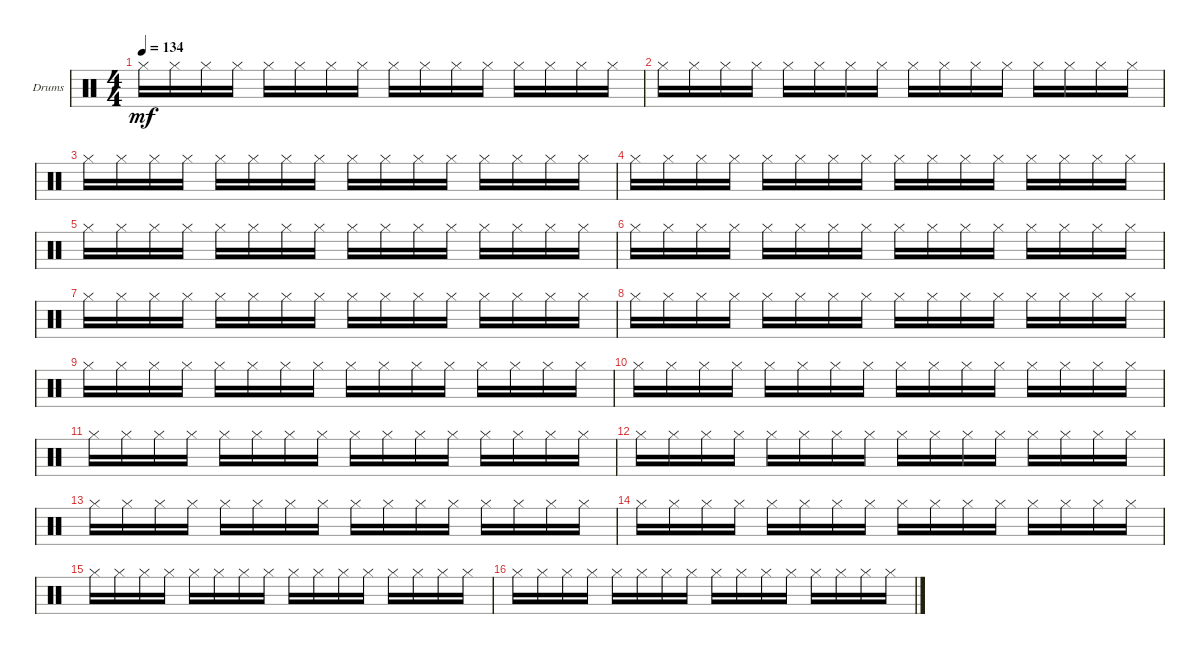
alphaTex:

\bracketExtendMode groupsimilarinstruments
\firstSystemTrackNameOrientation horizontal
\otherSystemsTrackNameOrientation horizontal
\track ("Drums" "Drums") {instrument percussion}
\staff {score}
\articulation defaults
\ts (4 4)
\tempo 134
\clef neutral
\ks c "Hi-Hat (closed)".16{dy mf} "Hi-Hat (closed)".16 "Hi-Hat (closed)".16 "Hi-Hat (closed)".16 "Hi-Hat (closed)".16 "Hi-Hat (closed)".16 "Hi-Hat (closed)".16 "Hi-Hat (closed)".16 "Hi-Hat (closed)".16 "Hi-Hat (closed)".16 "Hi-Hat (closed)".16 "Hi-Hat (closed)".16 "Hi-Hat (closed)".16 "Hi-Hat (closed)".16 "Hi-Hat (closed)".16 "Hi-Hat (closed)".16
|
"Hi-Hat (closed)".16 "Hi-Hat (closed)".16 "Hi-Hat (closed)".16 "Hi-Hat (closed)".16 "Hi-Hat (closed)".16 "Hi-Hat (closed)".16 "Hi-Hat (closed)".16 "Hi-Hat (closed)".16 "Hi-Hat (closed)".16 "Hi-Hat (closed)".16 "Hi-Hat (closed)".16 "Hi-Hat (closed)".16 "Hi-Hat (closed)".16 "Hi-Hat (closed)".16 "Hi-Hat (closed)".16 "Hi-Hat (closed)".16 |
"Hi-Hat (closed)".16 "Hi-Hat (closed)".16 "Hi-Hat (closed)".16 "Hi-Hat (closed)".16 "Hi-Hat (closed)".16 "Hi-Hat (closed)".16 "Hi-Hat (closed)".16 "Hi-Hat (closed)".16 "Hi-Hat (closed)".16 "Hi-Hat (closed)".16 "Hi-Hat (closed)".16 "Hi-Hat (closed)".16 "Hi-Hat (closed)".16 "Hi-Hat (closed)".16 "Hi-Hat (closed)".16 "Hi-Hat (closed)".16 |
"Hi-Hat (closed)".16 "Hi-Hat (closed)".16 "Hi-Hat (closed)".16 "Hi-Hat (closed)".16 "Hi-Hat (closed)".16 "Hi-Hat (closed)".16 "Hi-Hat (closed)".16 "Hi-Hat (closed)".16 "Hi-Hat (closed)".16 "Hi-Hat (closed)".16 "Hi-Hat (closed)".16 "Hi-Hat (closed)".16 "Hi-Hat (closed)".16 "Hi-Hat (closed)".16 "Hi-Hat (closed)".16 "Hi-Hat (closed)".16 |
"Hi-Hat (closed)".16 "Hi-Hat (closed)".16 "Hi-Hat (closed)".16 "Hi-Hat (closed)".16 "Hi-Hat (closed)".16 "Hi-Hat (closed)".16 "Hi-Hat (closed)".16 "Hi-Hat (closed)".16 "Hi-Hat (closed)".16 "Hi-Hat (closed)".16 "Hi-Hat (closed)".16 "Hi-Hat (closed)".16 "Hi-Hat (closed)".16 "Hi-Hat (closed)".16 "Hi-Hat (closed)".16 "Hi-Hat (closed)".16 |
"Hi-Hat (closed)".16 "Hi-Hat (closed)".16 "Hi-Hat (closed)".16 "Hi-Hat (closed)".16 "Hi-Hat (closed)".16 "Hi-Hat (closed)".16 "Hi-Hat (closed)".16 "Hi-Hat (closed)".16 "Hi-Hat (closed)".16 "Hi-Hat (closed)".16 "Hi-Hat (closed)".16 "Hi-Hat (closed)".16 "Hi-Hat (closed)".16 "Hi-Hat (closed)".16 "Hi-Hat (closed)".16 "Hi-Hat (closed)".16 |
"Hi-Hat (closed)".16 "Hi-Hat (closed)".16 "Hi-Hat (closed)".16 "Hi-Hat (closed)".16 "Hi-Hat (closed)".16 "Hi-Hat (closed)".16 "Hi-Hat (closed)".16 "Hi-Hat (closed)".16 "Hi-Hat (closed)".16 "Hi-Hat (closed)".16 "Hi-Hat (closed)".16 "Hi-Hat (closed)".16 "Hi-Hat (closed)".16 "Hi-Hat (closed)".16 "Hi-Hat (closed)".16 "Hi-Hat (closed)".16 |
"Hi-Hat (closed)".16 "Hi-Hat (closed)".16 "Hi-Hat (closed)".16 "Hi-Hat (closed)".16 "Hi-Hat (closed)".16 "Hi-Hat (closed)".16 "Hi-Hat (closed)".16 "Hi-Hat (closed)".16 "Hi-Hat (closed)".16 "Hi-Hat (closed)".16 "Hi-Hat (closed)".16 "Hi-Hat (closed)".16 "Hi-Hat (closed)".16 "Hi-Hat (closed)".16 "Hi-Hat (closed)".16 "Hi-Hat (closed)".16 |
"Hi-Hat (closed)".16 "Hi-Hat (closed)".16 "Hi-Hat (closed)".16 "Hi-Hat (closed)".16 "Hi-Hat (closed)".16 "Hi-Hat (closed)".16 "Hi-Hat (closed)".16 "Hi-Hat (closed)".16 "Hi-Hat (closed)".16 "Hi-Hat (closed)".16 "Hi-Hat (closed)".16 "Hi-Hat (closed)".16 "Hi-Hat (closed)".16 "Hi-Hat (closed)".16 "Hi-Hat (closed)".16 "Hi-Hat (closed)".16 |
"Hi-Hat (closed)".16 "Hi-Hat (closed)".16 "Hi-Hat (closed)".16 "Hi-Hat (closed)".16 "Hi-Hat (closed)".16 "Hi-Hat (closed)".16 "Hi-Hat (closed)".16 "Hi-Hat (closed)".16 "Hi-Hat (closed)".16 "Hi-Hat (closed)".16 "Hi-Hat (closed)".16 "Hi-Hat (closed)".16 "Hi-Hat (closed)".16 "Hi-Hat (closed)".16 "Hi-Hat (closed)".16 "Hi-Hat (closed)".16 |
"Hi-Hat (closed)".16 "Hi-Hat (closed)".16 "Hi-Hat (closed)".16 "Hi-Hat (closed)".16 "Hi-Hat (closed)".16 "Hi-Hat (closed)".16 "Hi-Hat (closed)".16 "Hi-Hat (closed)".16 "Hi-Hat (closed)".16 "Hi-Hat (closed)".16 "Hi-Hat (closed)".16 "Hi-Hat (closed)".16 "Hi-Hat (closed)".16 "Hi-Hat (closed)".16 "Hi-Hat (closed)".16 "Hi-Hat (closed)".16 |
"Hi-Hat (closed)".16 "Hi-Hat (closed)".16 "Hi-Hat (closed)".16 "Hi-Hat (closed)".16 "Hi-Hat (closed)".16 "Hi-Hat (closed)".16 "Hi-Hat (closed)".16 "Hi-Hat (closed)".16 "Hi-Hat (closed)".16 "Hi-Hat (closed)".16 "Hi-Hat (closed)".16 "Hi-Hat (closed)".16 "Hi-Hat (closed)".16 "Hi-Hat (closed)".16 "Hi-Hat (closed)".16 "Hi-Hat (closed)".16 |
"Hi-Hat (closed)".16 "Hi-Hat (closed)".16 "Hi-Hat (closed)".16 "Hi-Hat (closed)".16 "Hi-Hat (closed)".16 "Hi-Hat (closed)".16 "Hi-Hat (closed)".16 "Hi-Hat (closed)".16 "Hi-Hat (closed)".16 "Hi-Hat (closed)".16 "Hi-Hat (closed)".16 "Hi-Hat (closed)".16 "Hi-Hat (closed)".16 "Hi-Hat (closed)".16 "Hi-Hat (closed)".16 "Hi-Hat (closed)".16 |
"Hi-Hat (closed)".16 "Hi-Hat (closed)".16 "Hi-Hat (closed)".16 "Hi-Hat (closed)".16 "Hi-Hat (closed)".16 "Hi-Hat (closed)".16 "Hi-Hat (closed)".16 "Hi-Hat (closed)".16 "Hi-Hat (closed)".16 "Hi-Hat (closed)".16 "Hi-Hat (closed)".16 "Hi-Hat (closed)".16 "Hi-Hat (closed)".16 "Hi-Hat (closed)".16 "Hi-Hat (closed)".16 "Hi-Hat (closed)".16 |
"Hi-Hat (closed)".16 "Hi-Hat (closed)".16 "Hi-Hat (closed)".16 "Hi-Hat (closed)".16 "Hi-Hat (closed)".16 "Hi-Hat (closed)".16 "Hi-Hat (closed)".16 "Hi-Hat (closed)".16 "Hi-Hat (closed)".16 "Hi-Hat (closed)".16 "Hi-Hat (closed)".16 "Hi-Hat (closed)".16 "Hi-Hat (closed)".16 "Hi-Hat (closed)".16 "Hi-Hat (closed)".16 "Hi-Hat (closed)".16 |
"Hi-Hat (closed)".16 "Hi-Hat (closed)".16 "Hi-Hat (closed)".16 "Hi-Hat (closed)".16 "Hi-Hat (closed)".16 "Hi-Hat (closed)".16 "Hi-Hat (closed)".16 "Hi-Hat (closed)".16 "Hi-Hat (closed)".16 "Hi-Hat (closed)".16 "Hi-Hat (closed)".16 "Hi-Hat (closed)".16 "Hi-Hat (closed)".16 "Hi-Hat (closed)".16 "Hi-Hat (closed)".16 "Hi-Hat (closed)".16
